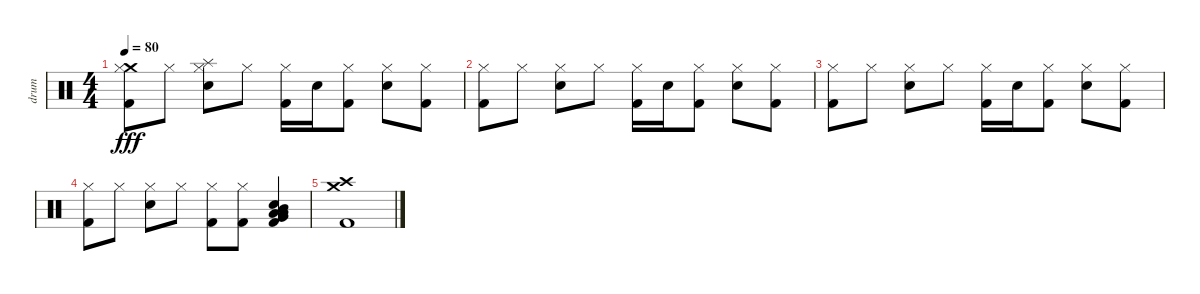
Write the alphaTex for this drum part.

\track ("drum" "drum") {instrument percussion}
\staff {score}
\articulation defaults
\ts (4 4)
\tempo 80
\clef neutral
\ks c
("Crash medium (hit)" "Hi-Hat (closed)" "Kick (hit) 2").8{dy fff} "Hi-Hat (closed)".8 ("Splash (hit)" "Hi-Hat (closed)" "Electric Snare (hit)").8 "Hi-Hat (closed)".8 ("Hi-Hat (closed)" "Kick (hit) 2").16 "Electric Snare (hit)".16 ("Hi-Hat (closed)" "Kick (hit) 2").8 ("Hi-Hat (closed)" "Electric Snare (hit)").8 ("Hi-Hat (closed)" "Kick (hit) 2").8 |
("Hi-Hat (closed)" "Kick (hit) 2").8 "Hi-Hat (closed)".8 ("Hi-Hat (closed)" "Electric Snare (hit)").8 "Hi-Hat (closed)".8 ("Hi-Hat (closed)" "Kick (hit) 2").16 "Electric Snare (hit)".16 ("Hi-Hat (closed)" "Kick (hit) 2").8 ("Hi-Hat (closed)" "Electric Snare (hit)").8 ("Hi-Hat (closed)" "Kick (hit) 2").8 |
("Hi-Hat (closed)" "Kick (hit) 2").8 "Hi-Hat (closed)".8 ("Hi-Hat (closed)" "Electric Snare (hit)").8 "Hi-Hat (closed)".8 ("Hi-Hat (closed)" "Kick (hit) 2").16 "Electric Snare (hit)".16 ("Hi-Hat (closed)" "Kick (hit) 2").8 ("Hi-Hat (closed)" "Electric Snare (hit)").8 ("Hi-Hat (closed)" "Kick (hit) 2").8 |
("Hi-Hat (closed)" "Kick (hit) 2").8 "Hi-Hat (closed)".8 ("Hi-Hat (closed)" "Electric Snare (hit)").8 "Hi-Hat (closed)".8 ("Hi-Hat (closed)" "Kick (hit) 2").8 ("Hi-Hat (closed)" "Kick (hit) 2").8 ("Very Low Tom (hit)" "Low Tom (hit)" "Mid Tom (hit)" "Electric Snare (hit)" "Kick (hit) 2" "Low Floor Tom (hit)").4 |
("Crash high (hit)" "Crash medium (hit)" "Kick (hit) 2").1
